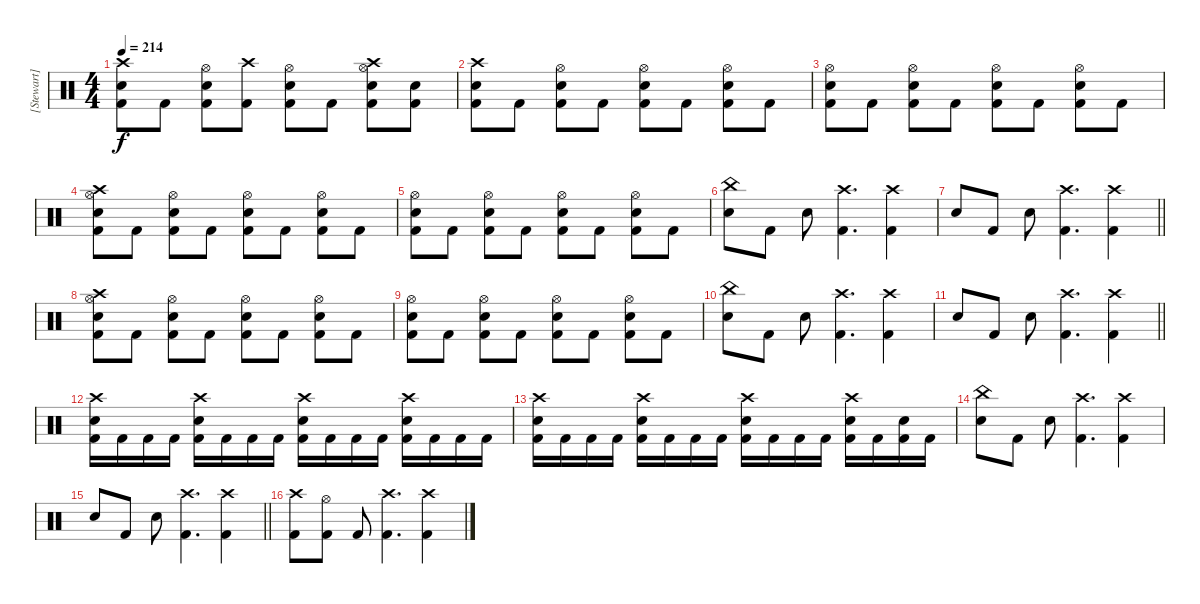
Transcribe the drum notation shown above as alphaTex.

\track ("[Stewart]" "[Stewart]") {instrument percussion}
\staff {score}
\articulation defaults
\ts (4 4)
\tempo 214
\clef neutral
\ks c
("Crash high (hit)" "Electric Snare (hit)" "Kick (hit) 2").8{dy f} "Kick (hit) 2".8 ("Hi-Hat (open)" "Electric Snare (hit)" "Kick (hit) 2").8 ("Crash high (hit)" "Kick (hit) 2").8 ("Hi-Hat (open)" "Electric Snare (hit)" "Kick (hit) 2").8 "Kick (hit) 2".8 ("Hi-Hat (open)" "Crash high (hit)" "Electric Snare (hit)" "Kick (hit) 2").8 ("Electric Snare (hit)" "Kick (hit) 2").8 |
("Crash high (hit)" "Electric Snare (hit)" "Kick (hit) 2").8 "Kick (hit) 2".8 ("Hi-Hat (open)" "Electric Snare (hit)" "Kick (hit) 2").8 "Kick (hit) 2".8 ("Hi-Hat (open)" "Electric Snare (hit)" "Kick (hit) 2").8 "Kick (hit) 2".8 ("Hi-Hat (open)" "Electric Snare (hit)" "Kick (hit) 2").8 "Kick (hit) 2".8 |
("Hi-Hat (open)" "Electric Snare (hit)" "Kick (hit) 2").8 "Kick (hit) 2".8 ("Hi-Hat (open)" "Electric Snare (hit)" "Kick (hit) 2").8 "Kick (hit) 2".8 ("Hi-Hat (open)" "Electric Snare (hit)" "Kick (hit) 2").8 "Kick (hit) 2".8 ("Hi-Hat (open)" "Electric Snare (hit)" "Kick (hit) 2").8 "Kick (hit) 2".8 |
("Hi-Hat (open)" "Crash high (hit)" "Electric Snare (hit)" "Kick (hit) 2").8 "Kick (hit) 2".8 ("Hi-Hat (open)" "Electric Snare (hit)" "Kick (hit) 2").8 "Kick (hit) 2".8 ("Hi-Hat (open)" "Electric Snare (hit)" "Kick (hit) 2").8 "Kick (hit) 2".8 ("Hi-Hat (open)" "Electric Snare (hit)" "Kick (hit) 2").8 "Kick (hit) 2".8 |
("Hi-Hat (open)" "Electric Snare (hit)" "Kick (hit) 2").8 "Kick (hit) 2".8 ("Hi-Hat (open)" "Electric Snare (hit)" "Kick (hit) 2").8 "Kick (hit) 2".8 ("Hi-Hat (open)" "Electric Snare (hit)" "Kick (hit) 2").8 "Kick (hit) 2".8 ("Hi-Hat (open)" "Electric Snare (hit)" "Kick (hit) 2").8 "Kick (hit) 2".8 |
("China (hit)" "Electric Snare (hit)").8 "Kick (hit) 2".8 "Electric Snare (hit)".8 ("Crash high (hit)" "Kick (hit) 2").4{d} ("Crash high (hit)" "Kick (hit) 2").4 |
\barLineRight lightlight "Electric Snare (hit)".8 "Kick (hit) 2".8 "Electric Snare (hit)".8
("Crash high (hit)" "Kick (hit) 2").4{d} ("Crash high (hit)" "Kick (hit) 2").4 |
("Hi-Hat (open)" "Crash high (hit)" "Electric Snare (hit)" "Kick (hit) 2").8 "Kick (hit) 2".8 ("Hi-Hat (open)" "Electric Snare (hit)" "Kick (hit) 2").8 "Kick (hit) 2".8 ("Hi-Hat (open)" "Electric Snare (hit)" "Kick (hit) 2").8 "Kick (hit) 2".8 ("Hi-Hat (open)" "Electric Snare (hit)" "Kick (hit) 2").8 "Kick (hit) 2".8 |
("Hi-Hat (open)" "Electric Snare (hit)" "Kick (hit) 2").8 "Kick (hit) 2".8 ("Hi-Hat (open)" "Electric Snare (hit)" "Kick (hit) 2").8 "Kick (hit) 2".8 ("Hi-Hat (open)" "Electric Snare (hit)" "Kick (hit) 2").8 "Kick (hit) 2".8 ("Hi-Hat (open)" "Electric Snare (hit)" "Kick (hit) 2").8 "Kick (hit) 2".8 |
("China (hit)" "Electric Snare (hit)").8 "Kick (hit) 2".8 "Electric Snare (hit)".8 ("Crash high (hit)" "Kick (hit) 2").4{d} ("Crash high (hit)" "Kick (hit) 2").4 |
\barLineRight lightlight "Electric Snare (hit)".8 "Kick (hit) 2".8 "Electric Snare (hit)".8
("Crash high (hit)" "Kick (hit) 2").4{d} ("Crash high (hit)" "Kick (hit) 2").4 |
("Electric Snare (hit)" "Crash high (hit)" "Kick (hit) 2").16 "Kick (hit) 2".16 "Kick (hit) 2".16 "Kick (hit) 2".16 ("Electric Snare (hit)" "Crash high (hit)" "Kick (hit) 2").16 "Kick (hit) 2".16 "Kick (hit) 2".16 "Kick (hit) 2".16 ("Electric Snare (hit)" "Crash high (hit)" "Kick (hit) 2").16 "Kick (hit) 2".16 "Kick (hit) 2".16 "Kick (hit) 2".16 ("Electric Snare (hit)" "Crash high (hit)" "Kick (hit) 2").16 "Kick (hit) 2".16 "Kick (hit) 2".16 "Kick (hit) 2".16 |
("Electric Snare (hit)" "Crash high (hit)" "Kick (hit) 2").16 "Kick (hit) 2".16 "Kick (hit) 2".16 "Kick (hit) 2".16 ("Electric Snare (hit)" "Crash high (hit)" "Kick (hit) 2").16 "Kick (hit) 2".16 "Kick (hit) 2".16 "Kick (hit) 2".16 ("Electric Snare (hit)" "Crash high (hit)" "Kick (hit) 2").16 "Kick (hit) 2".16 "Kick (hit) 2".16 "Kick (hit) 2".16 ("Electric Snare (hit)" "Crash high (hit)" "Kick (hit) 2").16 "Kick (hit) 2".16 ("Electric Snare (hit)" "Kick (hit) 2").16 "Kick (hit) 2".16 |
("China (hit)" "Electric Snare (hit)").8 "Kick (hit) 2".8 "Electric Snare (hit)".8 ("Crash high (hit)" "Kick (hit) 2").4{d} ("Crash high (hit)" "Kick (hit) 2").4 |
\barLineRight lightlight "Electric Snare (hit)".8 "Kick (hit) 2".8 "Electric Snare (hit)".8
("Crash high (hit)" "Kick (hit) 2").4{d} ("Crash high (hit)" "Kick (hit) 2").4 |
("Crash high (hit)" "Kick (hit) 2").8 ("Hi-Hat (open)" "Kick (hit) 2").8 "Kick (hit) 2".8 ("Crash high (hit)" "Kick (hit) 2").4{d} ("Crash high (hit)" "Kick (hit) 2").4
